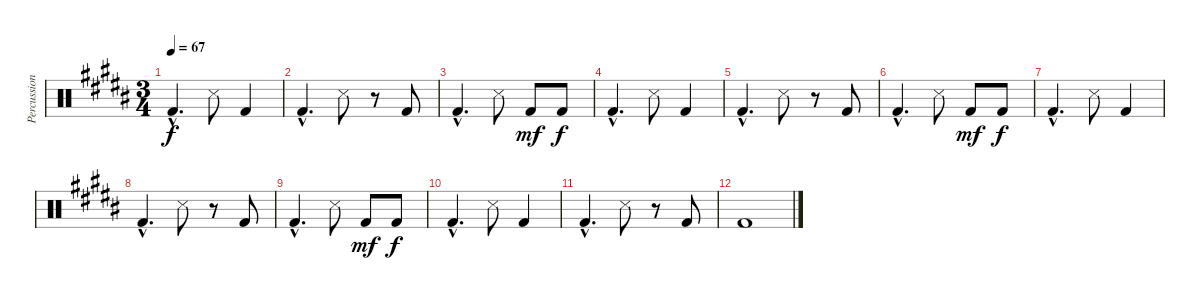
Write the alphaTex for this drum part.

\track ("Percussion" "Percussion") {instrument percussion}
\staff {score}
\articulation defaults
\ts (3 4)
\tempo 67
\clef neutral
\ks b "Kick (hit) 2"{hac}.4{d dy f} "Snare (side stick) 3".8 "Kick (hit) 2".4
|
"Kick (hit) 2"{hac}.4{d} "Snare (side stick) 3".8 r.8 "Kick (hit) 2".8 |
"Kick (hit) 2"{hac}.4{d} "Snare (side stick) 3".8 "Kick (hit) 2".8{dy mf} "Kick (hit) 2".8{dy f} |
"Kick (hit) 2"{hac}.4{d} "Snare (side stick) 3".8 "Kick (hit) 2".4 |
"Kick (hit) 2"{hac}.4{d} "Snare (side stick) 3".8 r.8 "Kick (hit) 2".8 |
"Kick (hit) 2"{hac}.4{d} "Snare (side stick) 3".8 "Kick (hit) 2".8{dy mf} "Kick (hit) 2".8{dy f} |
"Kick (hit) 2"{hac}.4{d} "Snare (side stick) 3".8 "Kick (hit) 2".4 |
"Kick (hit) 2"{hac}.4{d} "Snare (side stick) 3".8 r.8 "Kick (hit) 2".8 |
"Kick (hit) 2"{hac}.4{d} "Snare (side stick) 3".8 "Kick (hit) 2".8{dy mf} "Kick (hit) 2".8{dy f} |
"Kick (hit) 2"{hac}.4{d} "Snare (side stick) 3".8 "Kick (hit) 2".4 |
"Kick (hit) 2"{hac}.4{d} "Snare (side stick) 3".8 r.8 "Kick (hit) 2".8 |
"Kick (hit) 2".1
